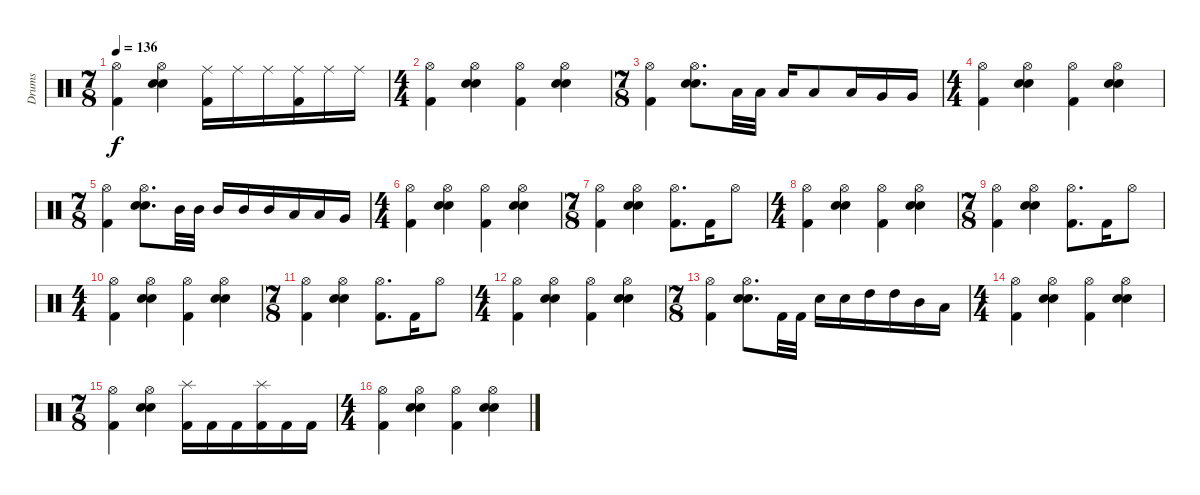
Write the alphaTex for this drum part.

\track ("Drums" "Drums") {instrument percussion}
\staff {score}
\articulation defaults
\ts (7 8)
\tempo 136
\clef neutral
\ks c
("Hi-Hat (open)" "Kick (hit) 2").4{dy f} ("Hi-Hat (open)" "Electric Snare (hit)" "Snare (hit) 2").4 ("Ride (middle)" "Kick (hit) 2").16 "Ride (middle)".16 "Ride (middle)".16 ("Ride (middle)" "Kick (hit) 2").16 "Ride (middle)".16 "Ride (middle)".16 |
\ts (4 4)
("Hi-Hat (open)" "Kick (hit) 2").4 ("Hi-Hat (open)" "Electric Snare (hit)" "Snare (hit) 2").4 ("Hi-Hat (open)" "Kick (hit) 2").4 ("Hi-Hat (open)" "Electric Snare (hit)" "Snare (hit) 2").4 |
\ts (7 8)
("Hi-Hat (open)" "Kick (hit) 2").4 ("Hi-Hat (open)" "Electric Snare (hit)" "Snare (hit) 2").8{d} "Low Tom (hit)".32 "Low Tom (hit)".32 "Low Tom (hit)".16 "Low Tom (hit)".8 "Low Tom (hit)".16 "Very Low Tom (hit)".16 "Very Low Tom (hit)".16 |
\ts (4 4)
("Hi-Hat (open)" "Kick (hit) 2").4 ("Hi-Hat (open)" "Electric Snare (hit)" "Snare (hit) 2").4 ("Hi-Hat (open)" "Kick (hit) 2").4 ("Hi-Hat (open)" "Electric Snare (hit)" "Snare (hit) 2").4 |
\ts (7 8)
("Hi-Hat (open)" "Kick (hit) 2").4 ("Hi-Hat (open)" "Electric Snare (hit)" "Snare (hit) 2").8{d} "Mid Tom (hit)".32 "Mid Tom (hit)".32 "Mid Tom (hit)".16 "Mid Tom (hit)".16 "Mid Tom (hit)".16 "Low Tom (hit)".16 "Low Tom (hit)".16 "Very Low Tom (hit)".16 |
\ts (4 4)
("Hi-Hat (open)" "Kick (hit) 2").4 ("Hi-Hat (open)" "Electric Snare (hit)" "Snare (hit) 2").4 ("Hi-Hat (open)" "Kick (hit) 2").4 ("Hi-Hat (open)" "Electric Snare (hit)" "Snare (hit) 2").4 |
\ts (7 8)
("Hi-Hat (open)" "Kick (hit) 2").4 ("Hi-Hat (open)" "Electric Snare (hit)" "Snare (hit) 2").4 ("Hi-Hat (open)" "Kick (hit) 2").8{d} "Kick (hit) 2".16 "Hi-Hat (open)".8 |
\ts (4 4)
("Hi-Hat (open)" "Kick (hit) 2").4 ("Hi-Hat (open)" "Electric Snare (hit)" "Snare (hit) 2").4 ("Hi-Hat (open)" "Kick (hit) 2").4 ("Hi-Hat (open)" "Electric Snare (hit)" "Snare (hit) 2").4 |
\ts (7 8)
("Hi-Hat (open)" "Kick (hit) 2").4 ("Hi-Hat (open)" "Electric Snare (hit)" "Snare (hit) 2").4 ("Hi-Hat (open)" "Kick (hit) 2").8{d} "Kick (hit) 2".16 "Hi-Hat (open)".8 |
\ts (4 4)
("Hi-Hat (open)" "Kick (hit) 2").4 ("Hi-Hat (open)" "Electric Snare (hit)" "Snare (hit) 2").4 ("Hi-Hat (open)" "Kick (hit) 2").4 ("Hi-Hat (open)" "Electric Snare (hit)" "Snare (hit) 2").4 |
\ts (7 8)
("Hi-Hat (open)" "Kick (hit) 2").4 ("Hi-Hat (open)" "Electric Snare (hit)" "Snare (hit) 2").4 ("Hi-Hat (open)" "Kick (hit) 2").8{d} "Kick (hit) 2".16 "Hi-Hat (open)".8 |
\ts (4 4)
("Hi-Hat (open)" "Kick (hit) 2").4 ("Hi-Hat (open)" "Electric Snare (hit)" "Snare (hit) 2").4 ("Hi-Hat (open)" "Kick (hit) 2").4 ("Hi-Hat (open)" "Electric Snare (hit)" "Snare (hit) 2").4 |
\ts (7 8)
("Hi-Hat (open)" "Kick (hit) 2").4 ("Hi-Hat (open)" "Electric Snare (hit)" "Snare (hit) 2").8{d} "Kick (hit) 2".32 "Kick (hit) 2".32 "Snare (hit) 2".16 "Snare (hit) 2".16 "High Tom (hit)".16 "High Tom (hit)".16 "Mid Tom (hit)".16 "Low Tom (hit)".16 |
\ts (4 4)
("Hi-Hat (open)" "Kick (hit) 2").4 ("Hi-Hat (open)" "Electric Snare (hit)" "Snare (hit) 2").4 ("Hi-Hat (open)" "Kick (hit) 2").4 ("Hi-Hat (open)" "Electric Snare (hit)" "Snare (hit) 2").4 |
\ts (7 8)
("Hi-Hat (open)" "Kick (hit) 2").4 ("Hi-Hat (open)" "Electric Snare (hit)" "Snare (hit) 2").4 ("Splash (hit)" "Kick (hit) 2").16 "Kick (hit) 2".16 "Kick (hit) 2".16 ("Splash (hit)" "Kick (hit) 2").16 "Kick (hit) 2".16 "Kick (hit) 2".16 |
\ts (4 4)
("Hi-Hat (open)" "Kick (hit) 2").4 ("Hi-Hat (open)" "Electric Snare (hit)" "Snare (hit) 2").4 ("Hi-Hat (open)" "Kick (hit) 2").4 ("Hi-Hat (open)" "Electric Snare (hit)" "Snare (hit) 2").4
